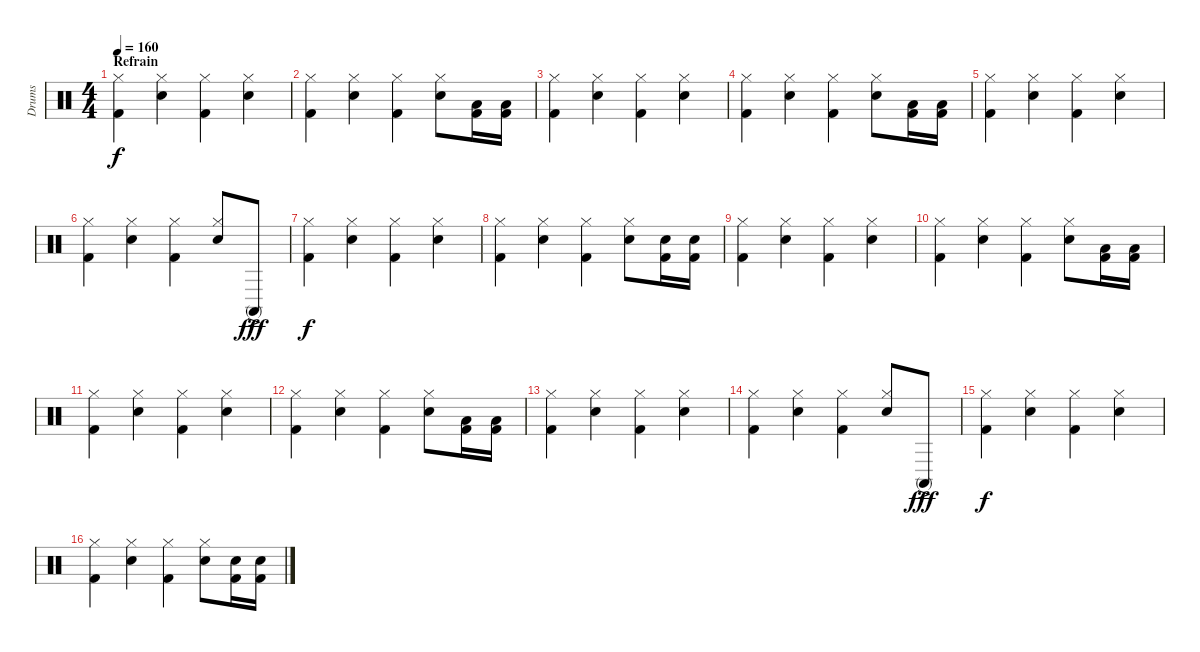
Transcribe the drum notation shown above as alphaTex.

\track ("Drums" "Drums") {instrument percussion}
\staff {score}
\articulation defaults
\ts (4 4)
\section ("" "Refrain")
\tempo 160
\clef neutral
\ks c
("Hi-Hat (closed)" "Kick (hit) 2").4{dy f} ("Hi-Hat (closed)" "Snare (hit) 2").4 ("Hi-Hat (closed)" "Kick (hit) 2").4 ("Hi-Hat (closed)" "Snare (hit) 2").4 |
("Hi-Hat (closed)" "Kick (hit) 2").4 ("Hi-Hat (closed)" "Snare (hit) 2").4 ("Hi-Hat (closed)" "Kick (hit) 2").4 ("Hi-Hat (closed)" "Snare (hit) 2").8 ("Low Tom (hit)" "Kick (hit) 2").16 ("Low Floor Tom (hit)" "Kick (hit) 2").16 |
("Hi-Hat (closed)" "Kick (hit) 2").4 ("Hi-Hat (closed)" "Snare (hit) 2").4 ("Hi-Hat (closed)" "Kick (hit) 2").4 ("Hi-Hat (closed)" "Snare (hit) 2").4 |
("Hi-Hat (closed)" "Kick (hit) 2").4 ("Hi-Hat (closed)" "Snare (hit) 2").4 ("Hi-Hat (closed)" "Kick (hit) 2").4 ("Hi-Hat (closed)" "Snare (hit) 2").8 ("Low Tom (hit)" "Kick (hit) 2").16 ("Low Floor Tom (hit)" "Kick (hit) 2").16 |
("Hi-Hat (closed)" "Kick (hit) 2").4 ("Hi-Hat (closed)" "Snare (hit) 2").4 ("Hi-Hat (closed)" "Kick (hit) 2").4 ("Hi-Hat (closed)" "Snare (hit) 2").4 |
("Hi-Hat (closed)" "Kick (hit) 2").4 ("Hi-Hat (closed)" "Snare (hit) 2").4 ("Hi-Hat (closed)" "Kick (hit) 2").4 ("Hi-Hat (closed)" "Snare (hit) 2").8 "Conga high (mute)"{ac}.8{dy fff} |
("Hi-Hat (closed)" "Kick (hit) 2").4{dy f} ("Hi-Hat (closed)" "Snare (hit) 2").4 ("Hi-Hat (closed)" "Kick (hit) 2").4 ("Hi-Hat (closed)" "Snare (hit) 2").4 |
("Hi-Hat (closed)" "Kick (hit) 2").4 ("Hi-Hat (closed)" "Snare (hit) 2").4 ("Hi-Hat (closed)" "Kick (hit) 2").4 ("Hi-Hat (closed)" "Snare (hit) 2").8 ("Snare (hit) 2" "Kick (hit) 2").16 ("Snare (hit) 2" "Kick (hit) 2").16 |
("Hi-Hat (closed)" "Kick (hit) 2").4 ("Hi-Hat (closed)" "Snare (hit) 2").4 ("Hi-Hat (closed)" "Kick (hit) 2").4 ("Hi-Hat (closed)" "Snare (hit) 2").4 |
("Hi-Hat (closed)" "Kick (hit) 2").4 ("Hi-Hat (closed)" "Snare (hit) 2").4 ("Hi-Hat (closed)" "Kick (hit) 2").4 ("Hi-Hat (closed)" "Snare (hit) 2").8 ("Low Tom (hit)" "Kick (hit) 2").16 ("Low Floor Tom (hit)" "Kick (hit) 2").16 |
("Hi-Hat (closed)" "Kick (hit) 2").4 ("Hi-Hat (closed)" "Snare (hit) 2").4 ("Hi-Hat (closed)" "Kick (hit) 2").4 ("Hi-Hat (closed)" "Snare (hit) 2").4 |
("Hi-Hat (closed)" "Kick (hit) 2").4 ("Hi-Hat (closed)" "Snare (hit) 2").4 ("Hi-Hat (closed)" "Kick (hit) 2").4 ("Hi-Hat (closed)" "Snare (hit) 2").8 ("Low Tom (hit)" "Kick (hit) 2").16 ("Low Floor Tom (hit)" "Kick (hit) 2").16 |
("Hi-Hat (closed)" "Kick (hit) 2").4 ("Hi-Hat (closed)" "Snare (hit) 2").4 ("Hi-Hat (closed)" "Kick (hit) 2").4 ("Hi-Hat (closed)" "Snare (hit) 2").4 |
("Hi-Hat (closed)" "Kick (hit) 2").4 ("Hi-Hat (closed)" "Snare (hit) 2").4 ("Hi-Hat (closed)" "Kick (hit) 2").4 ("Hi-Hat (closed)" "Snare (hit) 2").8 "Conga high (mute)"{ac}.8{dy fff} |
("Hi-Hat (closed)" "Kick (hit) 2").4{dy f} ("Hi-Hat (closed)" "Snare (hit) 2").4 ("Hi-Hat (closed)" "Kick (hit) 2").4 ("Hi-Hat (closed)" "Snare (hit) 2").4 |
("Hi-Hat (closed)" "Kick (hit) 2").4 ("Hi-Hat (closed)" "Snare (hit) 2").4 ("Hi-Hat (closed)" "Kick (hit) 2").4 ("Hi-Hat (closed)" "Snare (hit) 2").8 ("Snare (hit) 2" "Kick (hit) 2").16 ("Snare (hit) 2" "Kick (hit) 2").16
